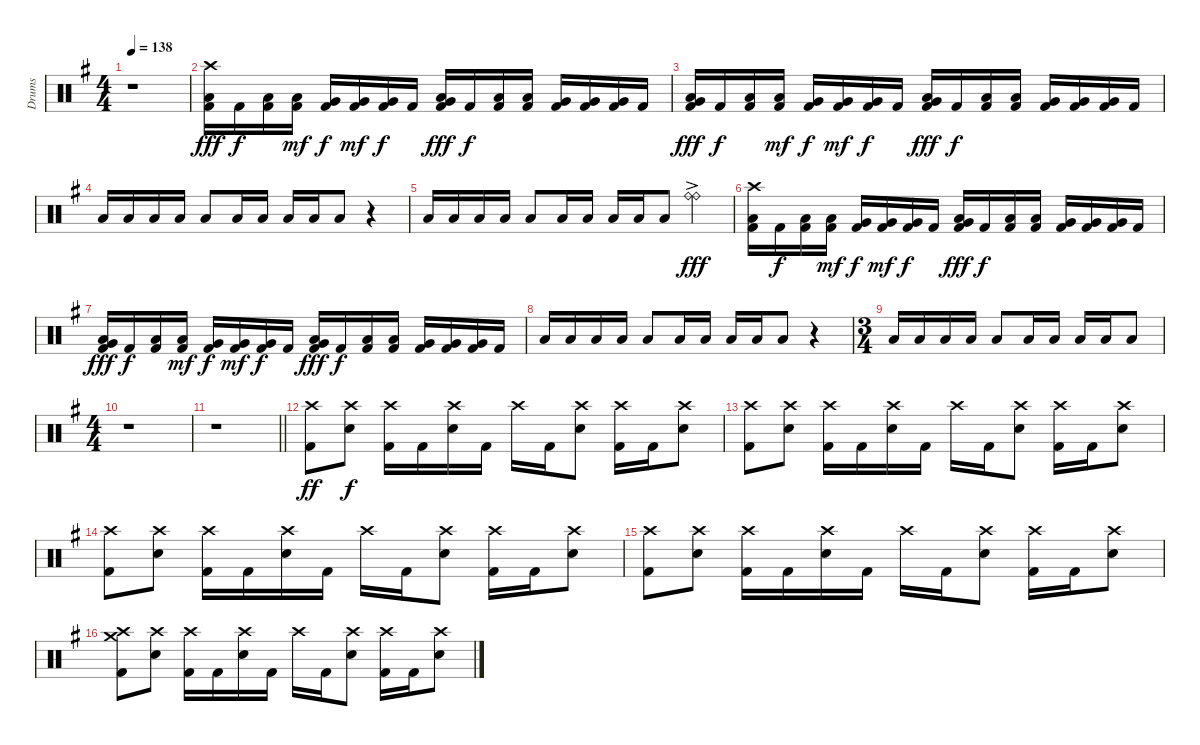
\track ("Drums" "Drums") {instrument percussion}
\staff {score}
\articulation defaults
\ts (4 4)
\tempo 138
\clef neutral
\ks eminor
r.1{dy fff} |
("Crash high (hit)" "Low Tom (hit)" "Kick (hit) 2").16 "Kick (hit) 2".16{dy f} ("Low Tom (hit)" "Kick (hit) 2").16 ("Low Tom (hit)" "Kick (hit) 2").16{dy mf} ("Very Low Tom (hit)" "Kick (hit) 2").16{dy f} ("Very Low Tom (hit)" "Kick (hit) 2").16{dy mf} ("Very Low Tom (hit)" "Kick (hit) 2").16{dy f} "Kick (hit) 2".16 ("Low Tom (hit)" "Very Low Tom (hit)" "Kick (hit) 2").16{dy fff} "Kick (hit) 2".16{dy f} ("Low Tom (hit)" "Kick (hit) 2").16 ("Low Tom (hit)" "Kick (hit) 2").16 ("Very Low Tom (hit)" "Kick (hit) 2").16 ("Very Low Tom (hit)" "Kick (hit) 2").16 ("Very Low Tom (hit)" "Kick (hit) 2").16 "Kick (hit) 2".16 |
("Low Tom (hit)" "Very Low Tom (hit)" "Kick (hit) 2").16{dy fff} "Kick (hit) 2".16{dy f} ("Low Tom (hit)" "Kick (hit) 2").16 ("Low Tom (hit)" "Kick (hit) 2").16{dy mf} ("Very Low Tom (hit)" "Kick (hit) 2").16{dy f} ("Very Low Tom (hit)" "Kick (hit) 2").16{dy mf} ("Very Low Tom (hit)" "Kick (hit) 2").16{dy f} "Kick (hit) 2".16 ("Low Tom (hit)" "Very Low Tom (hit)" "Kick (hit) 2").16{dy fff} "Kick (hit) 2".16{dy f} ("Low Tom (hit)" "Kick (hit) 2").16 ("Low Tom (hit)" "Kick (hit) 2").16 ("Very Low Tom (hit)" "Kick (hit) 2").16 ("Very Low Tom (hit)" "Kick (hit) 2").16 ("Very Low Tom (hit)" "Kick (hit) 2").16 "Kick (hit) 2".16 |
"Low Tom (hit)".16 "Low Tom (hit)".16 "Low Tom (hit)".16 "Low Tom (hit)".16 "Low Tom (hit)".8 "Low Tom (hit)".16 "Low Tom (hit)".16 "Low Tom (hit)".16 "Low Tom (hit)".16 "Low Tom (hit)".8 r.4 |
"Low Tom (hit)".16 "Low Tom (hit)".16 "Low Tom (hit)".16 "Low Tom (hit)".16 "Low Tom (hit)".8 "Low Tom (hit)".16 "Low Tom (hit)".16 "Low Tom (hit)".16 "Low Tom (hit)".16 "Low Tom (hit)".8 ("Ride (bell)"{ac} "Ride (bell)").4{dy fff} |
("Crash high (hit)" "Low Tom (hit)" "Kick (hit) 2").16 "Kick (hit) 2".16{dy f} ("Low Tom (hit)" "Kick (hit) 2").16 ("Low Tom (hit)" "Kick (hit) 2").16{dy mf} ("Very Low Tom (hit)" "Kick (hit) 2").16{dy f} ("Very Low Tom (hit)" "Kick (hit) 2").16{dy mf} ("Very Low Tom (hit)" "Kick (hit) 2").16{dy f} "Kick (hit) 2".16 ("Low Tom (hit)" "Very Low Tom (hit)" "Kick (hit) 2").16{dy fff} "Kick (hit) 2".16{dy f} ("Low Tom (hit)" "Kick (hit) 2").16 ("Low Tom (hit)" "Kick (hit) 2").16 ("Very Low Tom (hit)" "Kick (hit) 2").16 ("Very Low Tom (hit)" "Kick (hit) 2").16 ("Very Low Tom (hit)" "Kick (hit) 2").16 "Kick (hit) 2".16 |
("Low Tom (hit)" "Very Low Tom (hit)" "Kick (hit) 2").16{dy fff} "Kick (hit) 2".16{dy f} ("Low Tom (hit)" "Kick (hit) 2").16 ("Low Tom (hit)" "Kick (hit) 2").16{dy mf} ("Very Low Tom (hit)" "Kick (hit) 2").16{dy f} ("Very Low Tom (hit)" "Kick (hit) 2").16{dy mf} ("Very Low Tom (hit)" "Kick (hit) 2").16{dy f} "Kick (hit) 2".16 ("Low Tom (hit)" "Very Low Tom (hit)" "Kick (hit) 2").16{dy fff} "Kick (hit) 2".16{dy f} ("Low Tom (hit)" "Kick (hit) 2").16 ("Low Tom (hit)" "Kick (hit) 2").16 ("Very Low Tom (hit)" "Kick (hit) 2").16 ("Very Low Tom (hit)" "Kick (hit) 2").16 ("Very Low Tom (hit)" "Kick (hit) 2").16 "Kick (hit) 2".16 |
"Low Tom (hit)".16 "Low Tom (hit)".16 "Low Tom (hit)".16 "Low Tom (hit)".16 "Low Tom (hit)".8 "Low Tom (hit)".16 "Low Tom (hit)".16 "Low Tom (hit)".16 "Low Tom (hit)".16 "Low Tom (hit)".8 r.4 |
\ts (3 4)
"Low Tom (hit)".16 "Low Tom (hit)".16 "Low Tom (hit)".16 "Low Tom (hit)".16 "Low Tom (hit)".8 "Low Tom (hit)".16 "Low Tom (hit)".16 "Low Tom (hit)".16 "Low Tom (hit)".16 "Low Tom (hit)".8 |
\ts (4 4)
r.1 |
\barLineRight lightlight
r.1 |
("Crash high (hit)" "Kick (hit) 2").8{dy ff} ("Crash high (hit)" "Snare (hit) 2").8{dy f} ("Crash high (hit)" "Kick (hit) 2").16 "Kick (hit) 2".16 ("Crash high (hit)" "Snare (hit) 2").16 "Kick (hit) 2".16 "Crash high (hit)".16 "Kick (hit) 2".16 ("Crash high (hit)" "Snare (hit) 2").8 ("Crash high (hit)" "Kick (hit) 2").16 "Kick (hit) 2".16 ("Crash high (hit)" "Snare (hit) 2").8 |
("Crash high (hit)" "Kick (hit) 2").8 ("Crash high (hit)" "Snare (hit) 2").8 ("Crash high (hit)" "Kick (hit) 2").16 "Kick (hit) 2".16 ("Crash high (hit)" "Snare (hit) 2").16 "Kick (hit) 2".16 "Crash high (hit)".16 "Kick (hit) 2".16 ("Crash high (hit)" "Snare (hit) 2").8 ("Crash high (hit)" "Kick (hit) 2").16 "Kick (hit) 2".16 ("Crash high (hit)" "Snare (hit) 2").8 |
("Crash high (hit)" "Kick (hit) 2").8 ("Crash high (hit)" "Snare (hit) 2").8 ("Crash high (hit)" "Kick (hit) 2").16 "Kick (hit) 2".16 ("Crash high (hit)" "Snare (hit) 2").16 "Kick (hit) 2".16 "Crash high (hit)".16 "Kick (hit) 2".16 ("Crash high (hit)" "Snare (hit) 2").8 ("Crash high (hit)" "Kick (hit) 2").16 "Kick (hit) 2".16 ("Crash high (hit)" "Snare (hit) 2").8 |
("Crash high (hit)" "Kick (hit) 2").8 ("Crash high (hit)" "Snare (hit) 2").8 ("Crash high (hit)" "Kick (hit) 2").16 "Kick (hit) 2".16 ("Crash high (hit)" "Snare (hit) 2").16 "Kick (hit) 2".16 "Crash high (hit)".16 "Kick (hit) 2".16 ("Crash high (hit)" "Snare (hit) 2").8 ("Crash high (hit)" "Kick (hit) 2").16 "Kick (hit) 2".16 ("Crash high (hit)" "Snare (hit) 2").8 |
("Crash high (hit)" "Crash medium (hit)" "Kick (hit) 2").8 ("Crash high (hit)" "Snare (hit) 2").8 ("Crash high (hit)" "Kick (hit) 2").16 "Kick (hit) 2".16 ("Crash high (hit)" "Snare (hit) 2").16 "Kick (hit) 2".16 "Crash high (hit)".16 "Kick (hit) 2".16 ("Crash high (hit)" "Snare (hit) 2").8 ("Crash high (hit)" "Kick (hit) 2").16 "Kick (hit) 2".16 ("Crash high (hit)" "Snare (hit) 2").8
